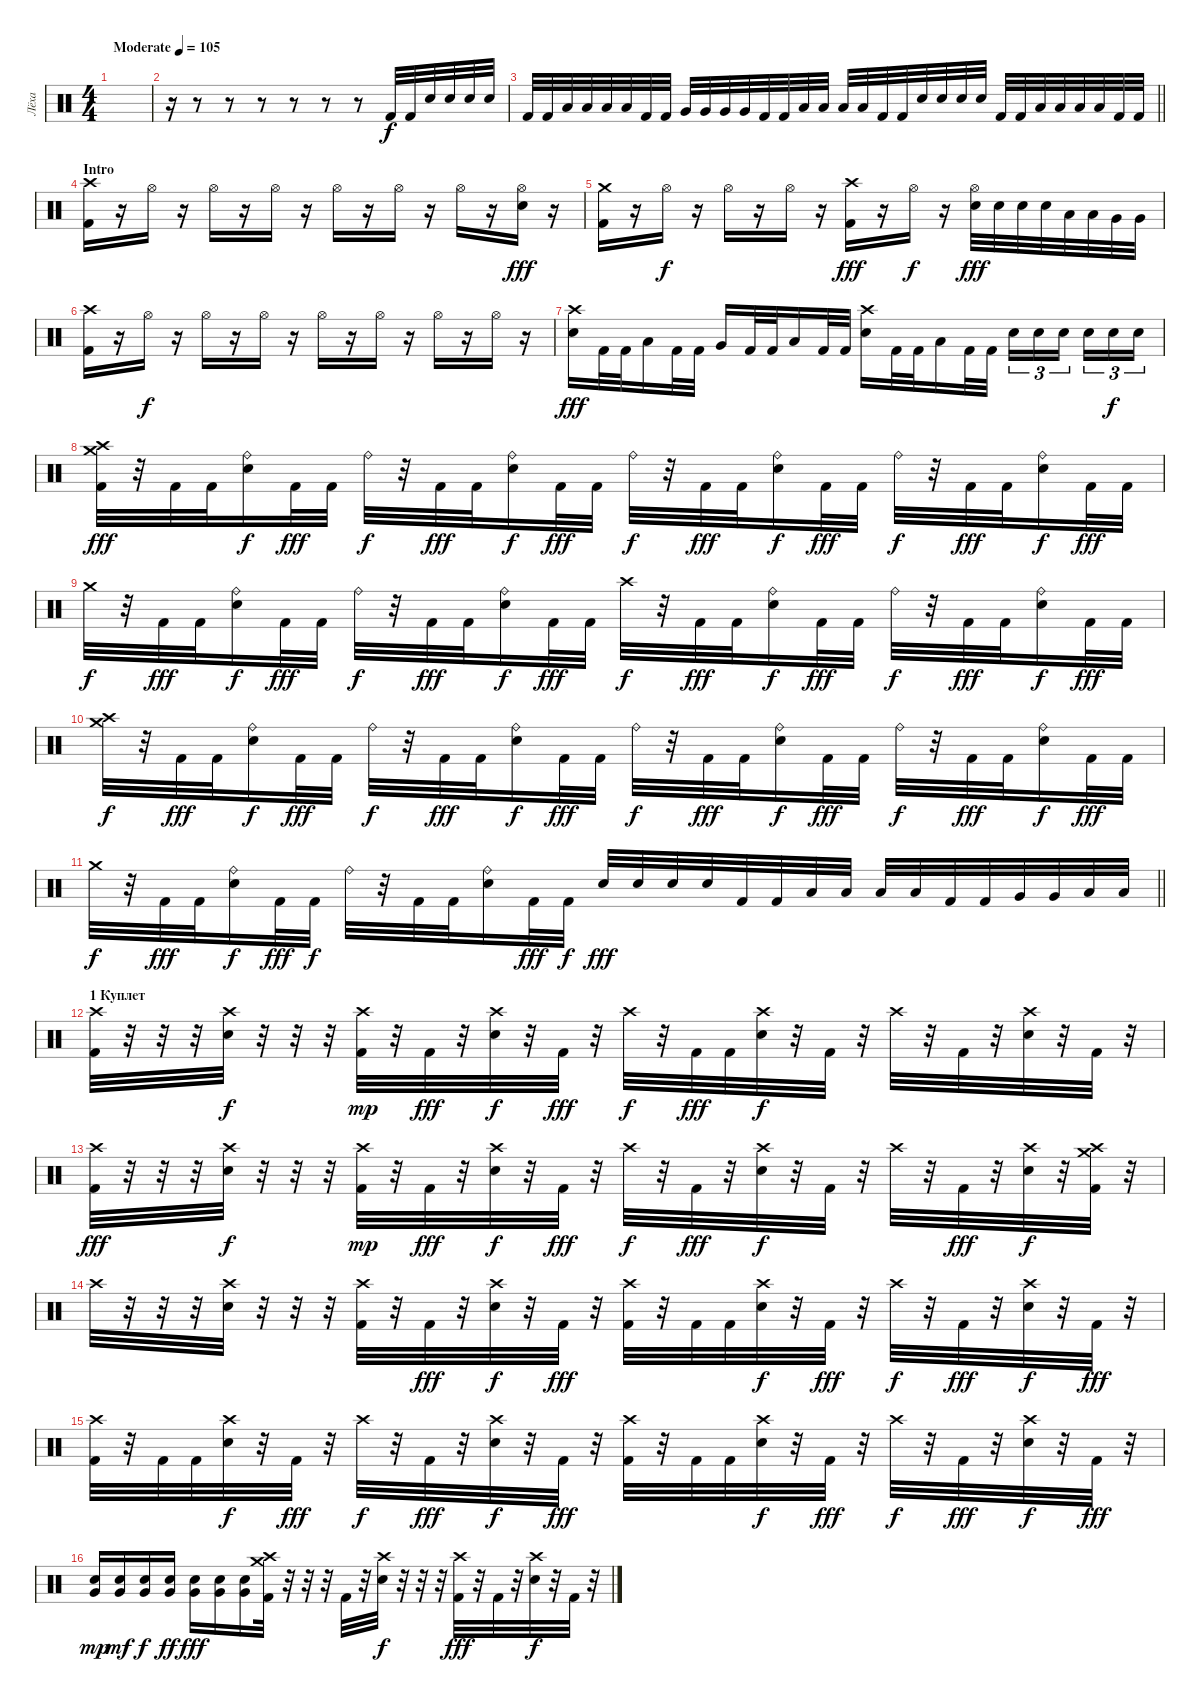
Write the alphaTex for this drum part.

\track ("Лёха" "Лёха") {solo instrument percussion}
\staff {score}
\articulation defaults
\ts (4 4)
\tempo (105 "Moderate")
\clef neutral
\ks c
|
r.16 r.8 r.8 r.8 r.8 r.8 r.8 "Kick (hit) 2".32 "Kick (hit) 2".32 "Electric Snare (hit)".32 "Electric Snare (hit)".32 "Electric Snare (hit)".32 "Electric Snare (hit)".32 |
\barLineRight lightlight "Kick (hit) 2".32 "Kick (hit) 2".32 "Low Tom (hit)".32 "Low Tom (hit)".32 "Low Tom (hit)".32 "Low Tom (hit)".32 "Kick (hit) 2".32 "Kick (hit) 2".32 "Very Low Tom (hit)".32 "Very Low Tom (hit)".32 "Very Low Tom (hit)".32 "Very Low Tom (hit)".32 "Kick (hit) 2".32 "Kick (hit) 2".32 "Low Floor Tom (hit)".32 "Low Floor Tom (hit)".32 "Low Floor Tom (hit)".32 "Low Floor Tom (hit)".32 "Kick (hit) 2".32 "Kick (hit) 2".32 "Electric Snare (hit)".32 "Electric Snare (hit)".32 "Electric Snare (hit)".32 "Electric Snare (hit)".32 "Kick (hit) 2".32 "Kick (hit) 2".32 "Low Tom (hit)".32 "Low Tom (hit)".32 "Low Tom (hit)".32 "Low Tom (hit)".32 "Kick (hit) 2".32 "Kick (hit) 2".32
|
\section ("" "Intro")
("Crash high (hit)" "Kick (hit) 2").16 r.16 "Hi-Hat (open)".16{dy f} r.16 "Hi-Hat (open)".16 r.16 "Hi-Hat (open)".16 r.16 "Hi-Hat (open)".16 r.16 "Hi-Hat (open)".16 r.16 "Hi-Hat (open)".16 r.16 ("Hi-Hat (open)" "Electric Snare (hit)").16{dy fff} r.16 |
("Crash medium (hit)" "Kick (hit) 2").16 r.16 "Hi-Hat (open)".16{dy f} r.16 "Hi-Hat (open)".16 r.16 "Hi-Hat (open)".16 r.16 ("Crash high (hit)" "Kick (hit) 2").16{dy fff} r.16 "Hi-Hat (open)".16{dy f} r.16 ("Hi-Hat (open)" "Electric Snare (hit)").32{dy fff} "Electric Snare (hit)".32 "Electric Snare (hit)".32 "Electric Snare (hit)".32 "Low Tom (hit)".32 "Low Tom (hit)".32 "Very Low Tom (hit)".32 "Very Low Tom (hit)".32 |
("Crash high (hit)" "Kick (hit) 2").16 r.16 "Hi-Hat (open)".16{dy f} r.16 "Hi-Hat (open)".16 r.16 "Hi-Hat (open)".16 r.16 "Hi-Hat (open)".16 r.16 "Hi-Hat (open)".16 r.16 "Hi-Hat (open)".16 r.16 "Hi-Hat (open)".16 r.16 |
("Crash high (hit)" "Electric Snare (hit)").16{dy fff} "Kick (hit) 2".32 "Kick (hit) 2".32 "Low Tom (hit)".16 "Kick (hit) 2".32 "Kick (hit) 2".32 "Very Low Tom (hit)".16 "Kick (hit) 2".32 "Kick (hit) 2".32 "Low Floor Tom (hit)".16 "Kick (hit) 2".32 "Kick (hit) 2".32 ("Crash high (hit)" "Electric Snare (hit)").16 "Kick (hit) 2".32 "Kick (hit) 2".32 "Low Tom (hit)".16 "Kick (hit) 2".32 "Kick (hit) 2".32 "Electric Snare (hit)".16{tu (3 2)} "Electric Snare (hit)".16{tu (3 2)} "Electric Snare (hit)".16{tu (3 2) beam splitsecondary} "Electric Snare (hit)".16{tu (3 2)} "Electric Snare (hit)".16{tu (3 2) dy f} "Electric Snare (hit)".16{tu (3 2)} |
("Crash high (hit)" "Crash medium (hit)" "Kick (hit) 2").32{dy fff} r.32 "Kick (hit) 2".32 "Kick (hit) 2".32 ("Ride (bell)" "Electric Snare (hit)").16{dy f} "Kick (hit) 2".32{dy fff} "Kick (hit) 2".32 "Ride (bell)".32{dy f} r.32 "Kick (hit) 2".32{dy fff} "Kick (hit) 2".32 ("Ride (bell)" "Electric Snare (hit)").16{dy f} "Kick (hit) 2".32{dy fff} "Kick (hit) 2".32 "Ride (bell)".32{dy f} r.32 "Kick (hit) 2".32{dy fff} "Kick (hit) 2".32 ("Ride (bell)" "Electric Snare (hit)").16{dy f} "Kick (hit) 2".32{dy fff} "Kick (hit) 2".32 "Ride (bell)".32{dy f} r.32 "Kick (hit) 2".32{dy fff} "Kick (hit) 2".32 ("Ride (bell)" "Electric Snare (hit)").16{dy f} "Kick (hit) 2".32{dy fff} "Kick (hit) 2".32 |
"Crash medium (hit)".32{dy f} r.32 "Kick (hit) 2".32{dy fff} "Kick (hit) 2".32 ("Ride (bell)" "Electric Snare (hit)").16{dy f} "Kick (hit) 2".32{dy fff} "Kick (hit) 2".32 "Ride (bell)".32{dy f} r.32 "Kick (hit) 2".32{dy fff} "Kick (hit) 2".32 ("Ride (bell)" "Electric Snare (hit)").16{dy f} "Kick (hit) 2".32{dy fff} "Kick (hit) 2".32 "Crash high (hit)".32{dy f} r.32 "Kick (hit) 2".32{dy fff} "Kick (hit) 2".32 ("Ride (bell)" "Electric Snare (hit)").16{dy f} "Kick (hit) 2".32{dy fff} "Kick (hit) 2".32 "Ride (bell)".32{dy f} r.32 "Kick (hit) 2".32{dy fff} "Kick (hit) 2".32 ("Ride (bell)" "Electric Snare (hit)").16{dy f} "Kick (hit) 2".32{dy fff} "Kick (hit) 2".32 |
("Crash high (hit)" "Crash medium (hit)").32{dy f} r.32 "Kick (hit) 2".32{dy fff} "Kick (hit) 2".32 ("Ride (bell)" "Electric Snare (hit)").16{dy f} "Kick (hit) 2".32{dy fff} "Kick (hit) 2".32 "Ride (bell)".32{dy f} r.32 "Kick (hit) 2".32{dy fff} "Kick (hit) 2".32 ("Ride (bell)" "Electric Snare (hit)").16{dy f} "Kick (hit) 2".32{dy fff} "Kick (hit) 2".32 "Ride (bell)".32{dy f} r.32 "Kick (hit) 2".32{dy fff} "Kick (hit) 2".32 ("Ride (bell)" "Electric Snare (hit)").16{dy f} "Kick (hit) 2".32{dy fff} "Kick (hit) 2".32 "Ride (bell)".32{dy f} r.32 "Kick (hit) 2".32{dy fff} "Kick (hit) 2".32 ("Ride (bell)" "Electric Snare (hit)").16{dy f} "Kick (hit) 2".32{dy fff} "Kick (hit) 2".32 |
\barLineRight lightlight "Crash medium (hit)".32{dy f}
r.32 "Kick (hit) 2".32{dy fff} "Kick (hit) 2".32 ("Ride (bell)" "Electric Snare (hit)").16{dy f} "Kick (hit) 2".32{dy fff} "Kick (hit) 2".32{dy f} "Ride (bell)".32 r.32 "Kick (hit) 2".32 "Kick (hit) 2".32 ("Ride (bell)" "Electric Snare (hit)").16 "Kick (hit) 2".32{dy fff} "Kick (hit) 2".32{dy f} "Electric Snare (hit)".32{dy fff} "Electric Snare (hit)".32 "Electric Snare (hit)".32 "Electric Snare (hit)".32 "Kick (hit) 2".32 "Kick (hit) 2".32 "Low Tom (hit)".32 "Low Tom (hit)".32 "Low Tom (hit)".32 "Low Tom (hit)".32 "Kick (hit) 2".32 "Kick (hit) 2".32 "Very Low Tom (hit)".32 "Very Low Tom (hit)".32 "Low Floor Tom (hit)".32 "Low Floor Tom (hit)".32 |
\section ("" "1 Куплет")
("Crash high (hit)" "Kick (hit) 2").32 r.32 r.32 r.32 ("Crash high (hit)" "Electric Snare (hit)").32{dy f} r.32 r.32 r.32 ("Crash high (hit)" "Kick (hit) 2").32{dy mp} r.32 "Kick (hit) 2".32{dy fff} r.32 ("Crash high (hit)" "Electric Snare (hit)").32{dy f} r.32 "Kick (hit) 2".32{dy fff} r.32 "Crash high (hit)".32{dy f} r.32 "Kick (hit) 2".32{dy fff} "Kick (hit) 2".32 ("Crash high (hit)" "Electric Snare (hit)").32{dy f} r.32 "Kick (hit) 2".32 r.32 "Crash high (hit)".32 r.32 "Kick (hit) 2".32 r.32 ("Crash high (hit)" "Electric Snare (hit)").32 r.32 "Kick (hit) 2".32 r.32 |
("Crash high (hit)" "Kick (hit) 2").32{dy fff} r.32 r.32 r.32 ("Crash high (hit)" "Electric Snare (hit)").32{dy f} r.32 r.32 r.32 ("Crash high (hit)" "Kick (hit) 2").32{dy mp} r.32 "Kick (hit) 2".32{dy fff} r.32 ("Crash high (hit)" "Electric Snare (hit)").32{dy f} r.32 "Kick (hit) 2".32{dy fff} r.32 "Crash high (hit)".32{dy f} r.32 "Kick (hit) 2".32{dy fff} r.32 ("Crash high (hit)" "Electric Snare (hit)").32{dy f} r.32 "Kick (hit) 2".32 r.32 "Crash high (hit)".32 r.32 "Kick (hit) 2".32{dy fff} r.32 ("Crash high (hit)" "Electric Snare (hit)").32{dy f} r.32 ("Crash high (hit)" "Crash medium (hit)" "Kick (hit) 2").32 r.32 |
"Crash high (hit)".32 r.32 r.32 r.32 ("Crash high (hit)" "Electric Snare (hit)").32 r.32 r.32 r.32 ("Crash high (hit)" "Kick (hit) 2").32 r.32 "Kick (hit) 2".32{dy fff} r.32 ("Crash high (hit)" "Electric Snare (hit)").32{dy f} r.32 "Kick (hit) 2".32{dy fff} r.32 ("Crash high (hit)" "Kick (hit) 2").32 r.32 "Kick (hit) 2".32 "Kick (hit) 2".32 ("Crash high (hit)" "Electric Snare (hit)").32{dy f} r.32 "Kick (hit) 2".32{dy fff} r.32 "Crash high (hit)".32{dy f} r.32 "Kick (hit) 2".32{dy fff} r.32 ("Crash high (hit)" "Electric Snare (hit)").32{dy f} r.32 "Kick (hit) 2".32{dy fff} r.32 |
("Crash high (hit)" "Kick (hit) 2").32 r.32 "Kick (hit) 2".32 "Kick (hit) 2".32 ("Crash high (hit)" "Electric Snare (hit)").32{dy f} r.32 "Kick (hit) 2".32{dy fff} r.32 "Crash high (hit)".32{dy f} r.32 "Kick (hit) 2".32{dy fff} r.32 ("Crash high (hit)" "Electric Snare (hit)").32{dy f} r.32 "Kick (hit) 2".32{dy fff} r.32 ("Crash high (hit)" "Kick (hit) 2").32 r.32 "Kick (hit) 2".32 "Kick (hit) 2".32 ("Crash high (hit)" "Electric Snare (hit)").32{dy f} r.32 "Kick (hit) 2".32{dy fff} r.32 "Crash high (hit)".32{dy f} r.32 "Kick (hit) 2".32{dy fff} r.32 ("Crash high (hit)" "Electric Snare (hit)").32{dy f} r.32 "Kick (hit) 2".32{dy fff} r.32 |
("Very Low Tom (hit)" "Electric Snare (hit)").16{dy mp} ("Very Low Tom (hit)" "Electric Snare (hit)").16{dy mf} ("Very Low Tom (hit)" "Electric Snare (hit)").16{dy f} ("Very Low Tom (hit)" "Electric Snare (hit)").16{dy ff} ("Very Low Tom (hit)" "Electric Snare (hit)").16{dy fff} ("Very Low Tom (hit)" "Electric Snare (hit)").16 ("Very Low Tom (hit)" "Electric Snare (hit)").16 ("Crash medium (hit)" "Crash high (hit)" "Kick (hit) 2").32 r.32 r.32 r.32 "Kick (hit) 2".32 r.32 ("Crash high (hit)" "Electric Snare (hit)").32{dy f} r.32 r.32 r.32 ("Crash high (hit)" "Kick (hit) 2").32{dy fff} r.32 "Kick (hit) 2".32 r.32 ("Crash high (hit)" "Electric Snare (hit)").32{dy f} r.32 "Kick (hit) 2".32 r.32
